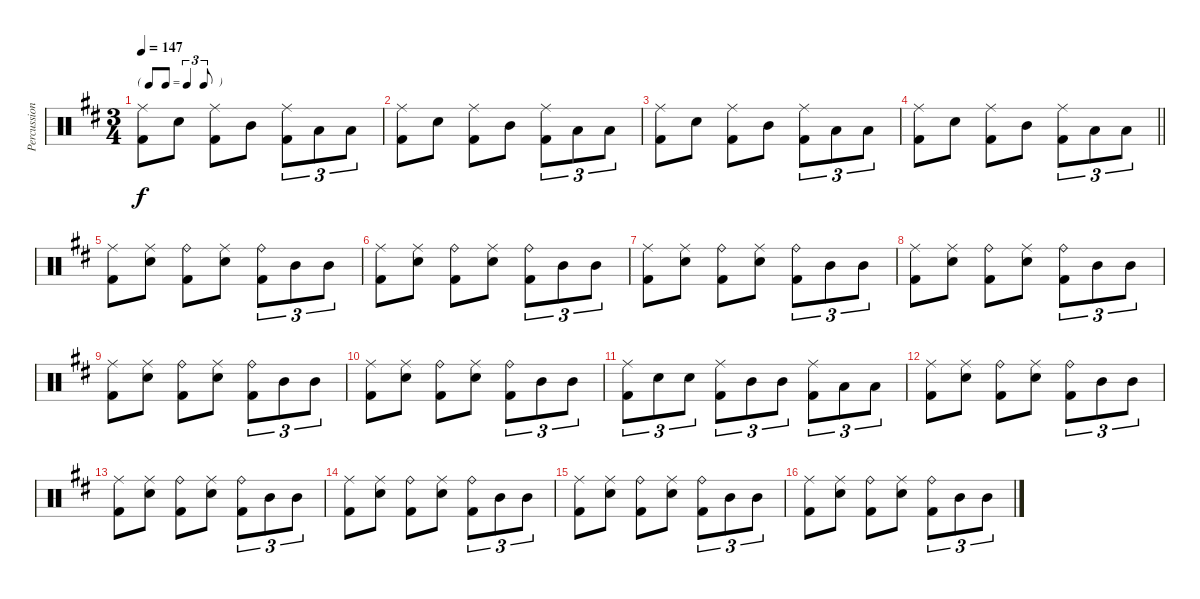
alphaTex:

\track ("Percussion" "Percussion") {instrument percussion}
\staff {score}
\articulation defaults
\ts (3 4)
\tf triplet8th
\tempo 147
\clef neutral
\ks d
("Ride (middle)" "Kick (hit) 2").8{dy f} "Snare (hit) 2".8 ("Ride (middle)" "Kick (hit) 2").8 "Mid Tom (hit)".8 ("Ride (middle)" "Kick (hit) 2").8{tu (3 2)} "Low Floor Tom (hit)".8{tu (3 2)} "Low Floor Tom (hit)".8{tu (3 2)} |
("Ride (middle)" "Kick (hit) 2").8 "Snare (hit) 2".8 ("Ride (middle)" "Kick (hit) 2").8 "Mid Tom (hit)".8 ("Ride (middle)" "Kick (hit) 2").8{tu (3 2)} "Low Floor Tom (hit)".8{tu (3 2)} "Low Floor Tom (hit)".8{tu (3 2)} |
("Ride (middle)" "Kick (hit) 2").8 "Snare (hit) 2".8 ("Ride (middle)" "Kick (hit) 2").8 "Mid Tom (hit)".8 ("Ride (middle)" "Kick (hit) 2").8{tu (3 2)} "Low Floor Tom (hit)".8{tu (3 2)} "Low Floor Tom (hit)".8{tu (3 2)} |
\barLineRight lightlight
("Ride (middle)" "Kick (hit) 2").8 "Snare (hit) 2".8 ("Ride (middle)" "Kick (hit) 2").8 "Mid Tom (hit)".8 ("Ride (middle)" "Kick (hit) 2").8{tu (3 2)} "Low Floor Tom (hit)".8{tu (3 2)} "Low Floor Tom (hit)".8{tu (3 2)} |
("Ride (middle)" "Kick (hit) 2").8 ("Ride (middle)" "Snare (hit) 2").8 ("Ride (bell)" "Kick (hit) 2").8 ("Ride (middle)" "Snare (hit) 2").8 ("Ride (bell)" "Kick (hit) 2").8{tu (3 2)} "Mid Tom (hit)".8{tu (3 2)} "Mid Tom (hit)".8{tu (3 2)} |
("Ride (middle)" "Kick (hit) 2").8 ("Ride (middle)" "Snare (hit) 2").8 ("Ride (bell)" "Kick (hit) 2").8 ("Ride (middle)" "Snare (hit) 2").8 ("Ride (bell)" "Kick (hit) 2").8{tu (3 2)} "Mid Tom (hit)".8{tu (3 2)} "Mid Tom (hit)".8{tu (3 2)} |
("Ride (middle)" "Kick (hit) 2").8 ("Ride (middle)" "Snare (hit) 2").8 ("Ride (bell)" "Kick (hit) 2").8 ("Ride (middle)" "Snare (hit) 2").8 ("Ride (bell)" "Kick (hit) 2").8{tu (3 2)} "Mid Tom (hit)".8{tu (3 2)} "Mid Tom (hit)".8{tu (3 2)} |
("Ride (middle)" "Kick (hit) 2").8 ("Ride (middle)" "Snare (hit) 2").8 ("Ride (bell)" "Kick (hit) 2").8 ("Ride (middle)" "Snare (hit) 2").8 ("Ride (bell)" "Kick (hit) 2").8{tu (3 2)} "Mid Tom (hit)".8{tu (3 2)} "Mid Tom (hit)".8{tu (3 2)} |
("Ride (middle)" "Kick (hit) 2").8 ("Ride (middle)" "Snare (hit) 2").8 ("Ride (bell)" "Kick (hit) 2").8 ("Ride (middle)" "Snare (hit) 2").8 ("Ride (bell)" "Kick (hit) 2").8{tu (3 2)} "Mid Tom (hit)".8{tu (3 2)} "Mid Tom (hit)".8{tu (3 2)} |
("Ride (middle)" "Kick (hit) 2").8 ("Ride (middle)" "Snare (hit) 2").8 ("Ride (bell)" "Kick (hit) 2").8 ("Ride (middle)" "Snare (hit) 2").8 ("Ride (bell)" "Kick (hit) 2").8{tu (3 2)} "Mid Tom (hit)".8{tu (3 2)} "Mid Tom (hit)".8{tu (3 2)} |
("Ride (middle)" "Kick (hit) 2").8{tu (3 2)} "Snare (hit) 2".8{tu (3 2)} "Snare (hit) 2".8{tu (3 2)} ("Ride (middle)" "Kick (hit) 2").8{tu (3 2)} "Mid Tom (hit)".8{tu (3 2)} "Mid Tom (hit)".8{tu (3 2)} ("Ride (middle)" "Kick (hit) 2").8{tu (3 2)} "Low Tom (hit)".8{tu (3 2)} "Low Tom (hit)".8{tu (3 2)} |
("Ride (middle)" "Kick (hit) 2").8 ("Ride (middle)" "Snare (hit) 2").8 ("Ride (bell)" "Kick (hit) 2").8 ("Ride (middle)" "Snare (hit) 2").8 ("Ride (bell)" "Kick (hit) 2").8{tu (3 2)} "Mid Tom (hit)".8{tu (3 2)} "Mid Tom (hit)".8{tu (3 2)} |
("Ride (middle)" "Kick (hit) 2").8 ("Ride (middle)" "Snare (hit) 2").8 ("Ride (bell)" "Kick (hit) 2").8 ("Ride (middle)" "Snare (hit) 2").8 ("Ride (bell)" "Kick (hit) 2").8{tu (3 2)} "Mid Tom (hit)".8{tu (3 2)} "Mid Tom (hit)".8{tu (3 2)} |
("Ride (middle)" "Kick (hit) 2").8 ("Ride (middle)" "Snare (hit) 2").8 ("Ride (bell)" "Kick (hit) 2").8 ("Ride (middle)" "Snare (hit) 2").8 ("Ride (bell)" "Kick (hit) 2").8{tu (3 2)} "Mid Tom (hit)".8{tu (3 2)} "Mid Tom (hit)".8{tu (3 2)} |
("Ride (middle)" "Kick (hit) 2").8 ("Ride (middle)" "Snare (hit) 2").8 ("Ride (bell)" "Kick (hit) 2").8 ("Ride (middle)" "Snare (hit) 2").8 ("Ride (bell)" "Kick (hit) 2").8{tu (3 2)} "Mid Tom (hit)".8{tu (3 2)} "Mid Tom (hit)".8{tu (3 2)} |
("Ride (middle)" "Kick (hit) 2").8 ("Ride (middle)" "Snare (hit) 2").8 ("Ride (bell)" "Kick (hit) 2").8 ("Ride (middle)" "Snare (hit) 2").8 ("Ride (bell)" "Kick (hit) 2").8{tu (3 2)} "Mid Tom (hit)".8{tu (3 2)} "Mid Tom (hit)".8{tu (3 2)}
